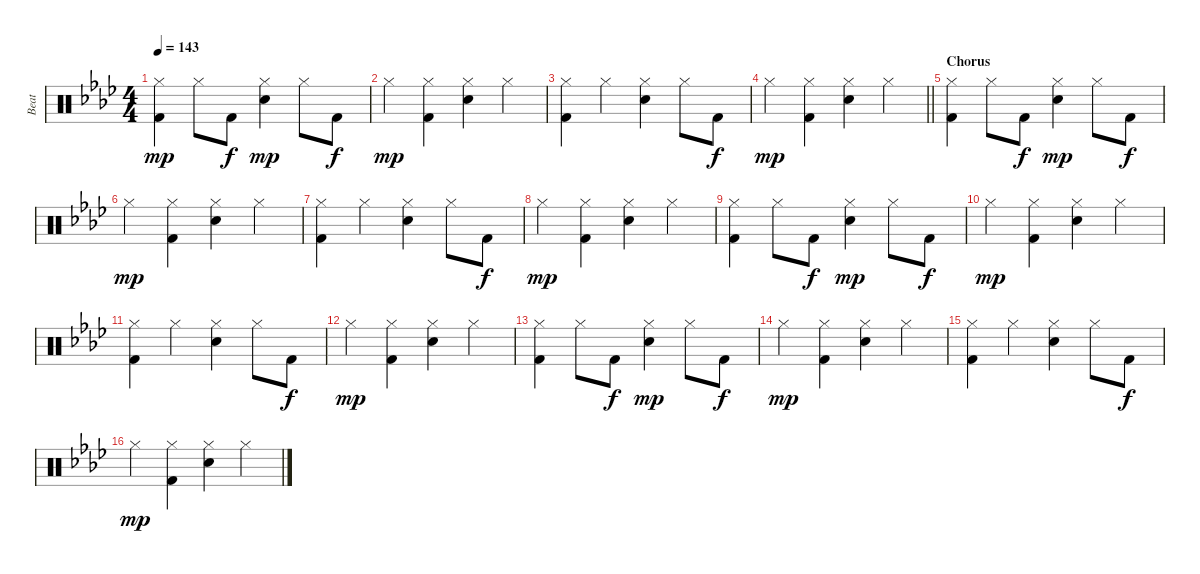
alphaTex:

\track ("Beat" "Beat") {instrument percussion}
\staff {score}
\articulation defaults
\ts (4 4)
\tempo 143
\clef neutral
\ks ab
("Hi-Hat (closed)" "Kick (hit) 2").4{dy mp} "Hi-Hat (closed)".8 "Kick (hit) 2".8{dy f} ("Hi-Hat (closed)" "Hand Clap (hit)").4{dy mp} "Hi-Hat (closed)".8 "Kick (hit) 2".8{dy f} |
"Hi-Hat (closed)".4{dy mp} ("Hi-Hat (closed)" "Kick (hit) 2").4 ("Hi-Hat (closed)" "Hand Clap (hit)").4 "Hi-Hat (closed)".4 |
("Hi-Hat (closed)" "Kick (hit) 2").4 "Hi-Hat (closed)".4 ("Hi-Hat (closed)" "Hand Clap (hit)").4 "Hi-Hat (closed)".8 "Kick (hit) 2".8{dy f} |
\barLineRight lightlight "Hi-Hat (closed)".4{dy mp}
("Hi-Hat (closed)" "Kick (hit) 2").4 ("Hi-Hat (closed)" "Hand Clap (hit)").4 "Hi-Hat (closed)".4 |
\section ("" "Chorus")
("Hi-Hat (closed)" "Kick (hit) 2").4 "Hi-Hat (closed)".8 "Kick (hit) 2".8{dy f} ("Hi-Hat (closed)" "Hand Clap (hit)").4{dy mp} "Hi-Hat (closed)".8 "Kick (hit) 2".8{dy f} |
"Hi-Hat (closed)".4{dy mp} ("Hi-Hat (closed)" "Kick (hit) 2").4 ("Hi-Hat (closed)" "Hand Clap (hit)").4 "Hi-Hat (closed)".4 |
("Hi-Hat (closed)" "Kick (hit) 2").4 "Hi-Hat (closed)".4 ("Hi-Hat (closed)" "Hand Clap (hit)").4 "Hi-Hat (closed)".8 "Kick (hit) 2".8{dy f} |
"Hi-Hat (closed)".4{dy mp} ("Hi-Hat (closed)" "Kick (hit) 2").4 ("Hi-Hat (closed)" "Hand Clap (hit)").4 "Hi-Hat (closed)".4 |
("Hi-Hat (closed)" "Kick (hit) 2").4 "Hi-Hat (closed)".8 "Kick (hit) 2".8{dy f} ("Hi-Hat (closed)" "Hand Clap (hit)").4{dy mp} "Hi-Hat (closed)".8 "Kick (hit) 2".8{dy f} |
"Hi-Hat (closed)".4{dy mp} ("Hi-Hat (closed)" "Kick (hit) 2").4 ("Hi-Hat (closed)" "Hand Clap (hit)").4 "Hi-Hat (closed)".4 |
("Hi-Hat (closed)" "Kick (hit) 2").4 "Hi-Hat (closed)".4 ("Hi-Hat (closed)" "Hand Clap (hit)").4 "Hi-Hat (closed)".8 "Kick (hit) 2".8{dy f} |
"Hi-Hat (closed)".4{dy mp} ("Hi-Hat (closed)" "Kick (hit) 2").4 ("Hi-Hat (closed)" "Hand Clap (hit)").4 "Hi-Hat (closed)".4 |
("Hi-Hat (closed)" "Kick (hit) 2").4 "Hi-Hat (closed)".8 "Kick (hit) 2".8{dy f} ("Hi-Hat (closed)" "Hand Clap (hit)").4{dy mp} "Hi-Hat (closed)".8 "Kick (hit) 2".8{dy f} |
"Hi-Hat (closed)".4{dy mp} ("Hi-Hat (closed)" "Kick (hit) 2").4 ("Hi-Hat (closed)" "Hand Clap (hit)").4 "Hi-Hat (closed)".4 |
("Hi-Hat (closed)" "Kick (hit) 2").4 "Hi-Hat (closed)".4 ("Hi-Hat (closed)" "Hand Clap (hit)").4 "Hi-Hat (closed)".8 "Kick (hit) 2".8{dy f} |
"Hi-Hat (closed)".4{dy mp} ("Hi-Hat (closed)" "Kick (hit) 2").4 ("Hi-Hat (closed)" "Hand Clap (hit)").4 "Hi-Hat (closed)".4
